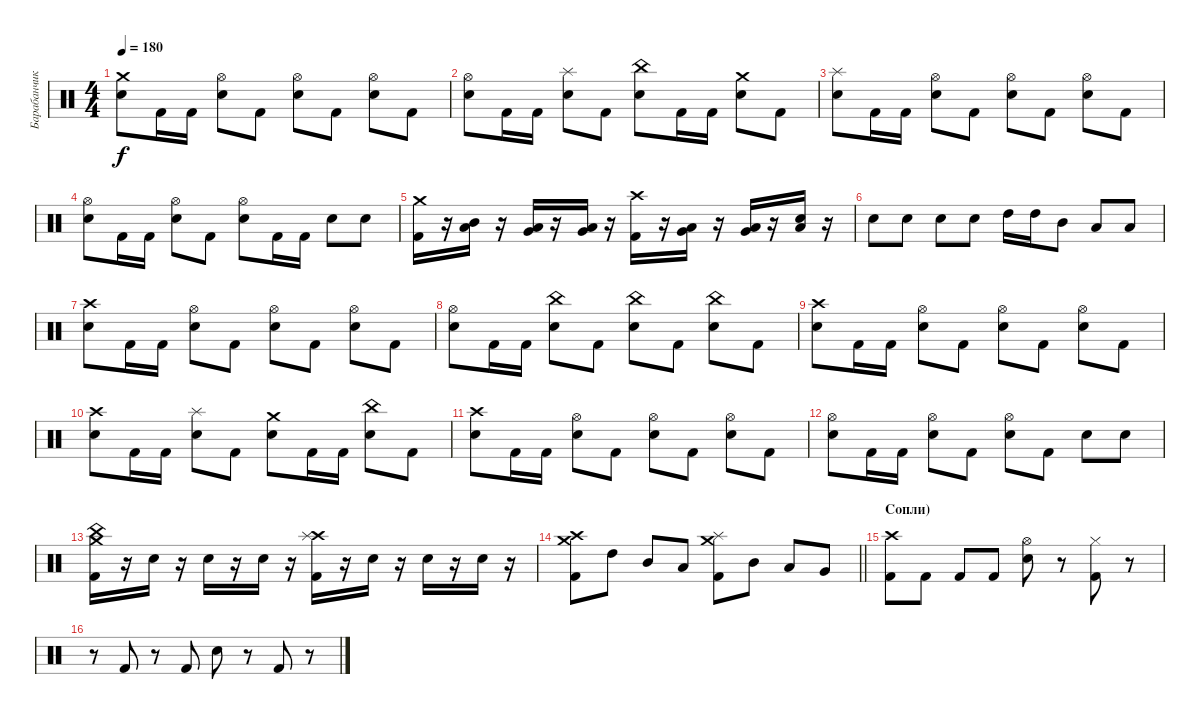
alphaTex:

\track ("Барабанчики" "Барабанчик") {instrument percussion}
\staff {score}
\articulation defaults
\ts (4 4)
\tempo 180
\clef neutral
\ks c
("Crash medium (hit)" "Electric Snare (hit)").8{dy f} "Kick (hit) 2".16 "Kick (hit) 2".16 ("Hi-Hat (open)" "Electric Snare (hit)").8 "Kick (hit) 2".8 ("Hi-Hat (open)" "Electric Snare (hit)").8 "Kick (hit) 2".8 ("Hi-Hat (open)" "Electric Snare (hit)").8 "Kick (hit) 2".8 |
("Hi-Hat (open)" "Electric Snare (hit)").8 "Kick (hit) 2".16 "Kick (hit) 2".16 ("Splash (hit)" "Electric Snare (hit)").8 "Kick (hit) 2".8 ("China (hit)" "Electric Snare (hit)").8 "Kick (hit) 2".16 "Kick (hit) 2".16 ("Crash medium (hit)" "Electric Snare (hit)").8 "Kick (hit) 2".8 |
("Splash (hit)" "Electric Snare (hit)").8 "Kick (hit) 2".16 "Kick (hit) 2".16 ("Hi-Hat (open)" "Electric Snare (hit)").8 "Kick (hit) 2".8 ("Hi-Hat (open)" "Electric Snare (hit)").8 "Kick (hit) 2".8 ("Hi-Hat (open)" "Electric Snare (hit)").8 "Kick (hit) 2".8 |
("Hi-Hat (open)" "Electric Snare (hit)").8 "Kick (hit) 2".16 "Kick (hit) 2".16 ("Hi-Hat (open)" "Electric Snare (hit)").8 "Kick (hit) 2".8 ("Hi-Hat (open)" "Electric Snare (hit)").8 "Kick (hit) 2".16 "Kick (hit) 2".16 "Electric Snare (hit)".8 "Electric Snare (hit)".8 |
("Kick (hit) 2" "Crash medium (hit)").16 r.16 ("Low Tom (hit)" "Mid Tom (hit)").16 r.16 ("Very Low Tom (hit)" "Low Tom (hit)").16 r.16 ("Low Floor Tom (hit)" "Very Low Tom (hit)").16 r.16 ("Kick (hit) 2" "Crash high (hit)").16 r.16 ("Low Floor Tom (hit)" "Very Low Tom (hit)").16 r.16 ("Low Floor Tom (hit)" "Very Low Tom (hit)").16 r.16 ("Electric Snare (hit)" "Low Floor Tom (hit)").16 r.16 |
"Electric Snare (hit)".8 "Electric Snare (hit)".8 "Electric Snare (hit)".8 "Electric Snare (hit)".8 "High Tom (hit)".16 "High Tom (hit)".16 "Mid Tom (hit)".8 "Low Tom (hit)".8 "Low Tom (hit)".8 |
("Crash high (hit)" "Electric Snare (hit)").8 "Kick (hit) 2".16 "Kick (hit) 2".16 ("Hi-Hat (open)" "Electric Snare (hit)").8 "Kick (hit) 2".8 ("Hi-Hat (open)" "Electric Snare (hit)").8 "Kick (hit) 2".8 ("Hi-Hat (open)" "Electric Snare (hit)").8 "Kick (hit) 2".8 |
("Hi-Hat (open)" "Electric Snare (hit)").8 "Kick (hit) 2".16 "Kick (hit) 2".16 ("China (hit)" "Electric Snare (hit)").8 "Kick (hit) 2".8 ("China (hit)" "Electric Snare (hit)").8 "Kick (hit) 2".8 ("China (hit)" "Electric Snare (hit)").8 "Kick (hit) 2".8 |
("Crash high (hit)" "Electric Snare (hit)").8 "Kick (hit) 2".16 "Kick (hit) 2".16 ("Hi-Hat (open)" "Electric Snare (hit)").8 "Kick (hit) 2".8 ("Hi-Hat (open)" "Electric Snare (hit)").8 "Kick (hit) 2".8 ("Hi-Hat (open)" "Electric Snare (hit)").8 "Kick (hit) 2".8 |
("Crash high (hit)" "Electric Snare (hit)").8 "Kick (hit) 2".16 "Kick (hit) 2".16 ("Splash (hit)" "Electric Snare (hit)").8 "Kick (hit) 2".8 ("Crash medium (hit)" "Electric Snare (hit)").8 "Kick (hit) 2".16 "Kick (hit) 2".16 ("China (hit)" "Electric Snare (hit)").8 "Kick (hit) 2".8 |
("Crash high (hit)" "Electric Snare (hit)").8 "Kick (hit) 2".16 "Kick (hit) 2".16 ("Hi-Hat (open)" "Electric Snare (hit)").8 "Kick (hit) 2".8 ("Hi-Hat (open)" "Electric Snare (hit)").8 "Kick (hit) 2".8 ("Hi-Hat (open)" "Electric Snare (hit)").8 "Kick (hit) 2".8 |
("Hi-Hat (open)" "Electric Snare (hit)").8 "Kick (hit) 2".16 "Kick (hit) 2".16 ("Hi-Hat (open)" "Electric Snare (hit)").8 "Kick (hit) 2".8 ("Hi-Hat (open)" "Electric Snare (hit)").8 "Kick (hit) 2".8 "Electric Snare (hit)".8 "Electric Snare (hit)".8 |
("Kick (hit) 2" "China (hit)" "Crash medium (hit)").16 r.16 "Electric Snare (hit)".16 r.16 "Electric Snare (hit)".16 r.16 "Electric Snare (hit)".16 r.16 ("Kick (hit) 2" "Crash high (hit)" "Splash (hit)").16 r.16 "Electric Snare (hit)".16 r.16 "Electric Snare (hit)".16 r.16 "Electric Snare (hit)".16 r.16 |
\barLineRight lightlight
("Kick (hit) 2" "Crash medium (hit)" "Crash high (hit)").8 "High Tom (hit)".8 "Mid Tom (hit)".8 "Low Tom (hit)".8 ("Kick (hit) 2" "Crash medium (hit)" "Splash (hit)").8 "Mid Tom (hit)".8 "Low Tom (hit)".8 "Very Low Tom (hit)".8 |
\section ("" "Сопли)")
("Crash high (hit)" "Kick (hit) 2").8 "Kick (hit) 2".8 "Kick (hit) 2".8 "Kick (hit) 2".8 ("Hi-Hat (open)" "Electric Snare (hit)").8 r.8 ("Hi-Hat (closed)" "Kick (hit) 2").8 r.8 |
r.8 "Kick (hit) 2".8 r.8 "Kick (hit) 2".8 "Electric Snare (hit)".8 r.8 "Kick (hit) 2".8 r.8
